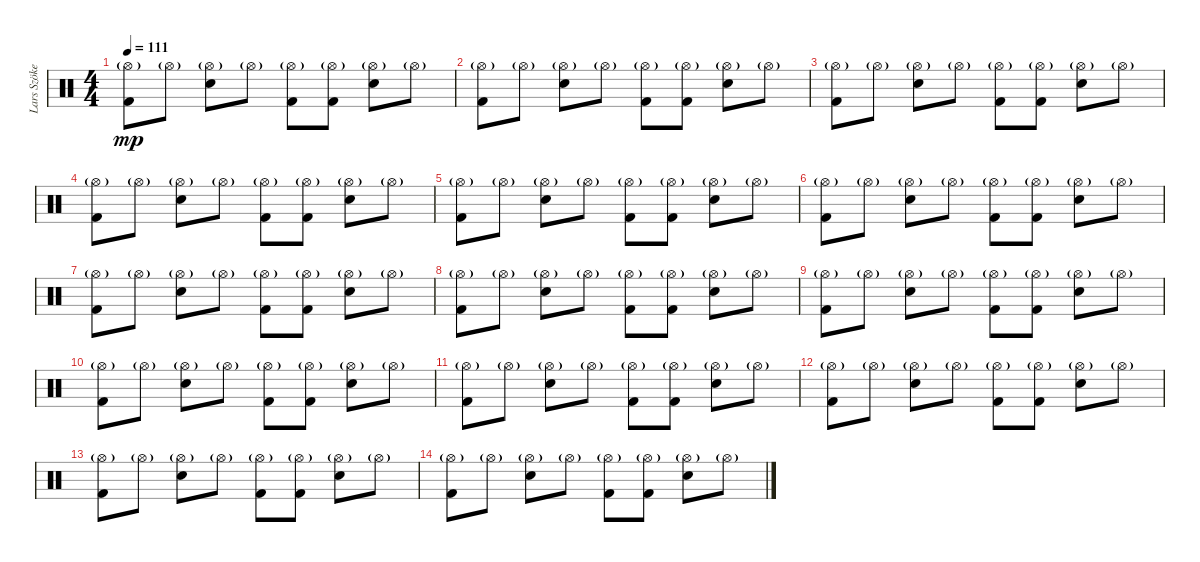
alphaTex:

\track ("Lars Szöke/Horgh" "Lars Szöke") {instrument percussion}
\staff {score}
\articulation defaults
\ts (4 4)
\tempo 111
\clef neutral
\ks c
("Hi-Hat (open)"{g} "Kick (hit) 2").8{dy mp} "Hi-Hat (open)"{g}.8 ("Hi-Hat (open)"{g} "Snare (hit) 2").8 "Hi-Hat (open)"{g}.8 ("Hi-Hat (open)"{g} "Kick (hit) 2").8 ("Hi-Hat (open)"{g} "Kick (hit) 2").8 ("Hi-Hat (open)"{g} "Snare (hit) 2").8 "Hi-Hat (open)"{g}.8 |
("Hi-Hat (open)"{g} "Kick (hit) 2").8 "Hi-Hat (open)"{g}.8 ("Hi-Hat (open)"{g} "Snare (hit) 2").8 "Hi-Hat (open)"{g}.8 ("Hi-Hat (open)"{g} "Kick (hit) 2").8 ("Hi-Hat (open)"{g} "Kick (hit) 2").8 ("Hi-Hat (open)"{g} "Snare (hit) 2").8 "Hi-Hat (open)"{g}.8 |
("Hi-Hat (open)"{g} "Kick (hit) 2").8 "Hi-Hat (open)"{g}.8 ("Hi-Hat (open)"{g} "Snare (hit) 2").8 "Hi-Hat (open)"{g}.8 ("Hi-Hat (open)"{g} "Kick (hit) 2").8 ("Hi-Hat (open)"{g} "Kick (hit) 2").8 ("Hi-Hat (open)"{g} "Snare (hit) 2").8 "Hi-Hat (open)"{g}.8 |
("Hi-Hat (open)"{g} "Kick (hit) 2").8 "Hi-Hat (open)"{g}.8 ("Hi-Hat (open)"{g} "Snare (hit) 2").8 "Hi-Hat (open)"{g}.8 ("Hi-Hat (open)"{g} "Kick (hit) 2").8 ("Hi-Hat (open)"{g} "Kick (hit) 2").8 ("Hi-Hat (open)"{g} "Snare (hit) 2").8 "Hi-Hat (open)"{g}.8 |
("Hi-Hat (open)"{g} "Kick (hit) 2").8 "Hi-Hat (open)"{g}.8 ("Hi-Hat (open)"{g} "Snare (hit) 2").8 "Hi-Hat (open)"{g}.8 ("Hi-Hat (open)"{g} "Kick (hit) 2").8 ("Hi-Hat (open)"{g} "Kick (hit) 2").8 ("Hi-Hat (open)"{g} "Snare (hit) 2").8 "Hi-Hat (open)"{g}.8 |
("Hi-Hat (open)"{g} "Kick (hit) 2").8 "Hi-Hat (open)"{g}.8 ("Hi-Hat (open)"{g} "Snare (hit) 2").8 "Hi-Hat (open)"{g}.8 ("Hi-Hat (open)"{g} "Kick (hit) 2").8 ("Hi-Hat (open)"{g} "Kick (hit) 2").8 ("Hi-Hat (open)"{g} "Snare (hit) 2").8 "Hi-Hat (open)"{g}.8 |
("Hi-Hat (open)"{g} "Kick (hit) 2").8 "Hi-Hat (open)"{g}.8 ("Hi-Hat (open)"{g} "Snare (hit) 2").8 "Hi-Hat (open)"{g}.8 ("Hi-Hat (open)"{g} "Kick (hit) 2").8 ("Hi-Hat (open)"{g} "Kick (hit) 2").8 ("Hi-Hat (open)"{g} "Snare (hit) 2").8 "Hi-Hat (open)"{g}.8 |
("Hi-Hat (open)"{g} "Kick (hit) 2").8 "Hi-Hat (open)"{g}.8 ("Hi-Hat (open)"{g} "Snare (hit) 2").8 "Hi-Hat (open)"{g}.8 ("Hi-Hat (open)"{g} "Kick (hit) 2").8 ("Hi-Hat (open)"{g} "Kick (hit) 2").8 ("Hi-Hat (open)"{g} "Snare (hit) 2").8 "Hi-Hat (open)"{g}.8 |
("Hi-Hat (open)"{g} "Kick (hit) 2").8 "Hi-Hat (open)"{g}.8 ("Hi-Hat (open)"{g} "Snare (hit) 2").8 "Hi-Hat (open)"{g}.8 ("Hi-Hat (open)"{g} "Kick (hit) 2").8 ("Hi-Hat (open)"{g} "Kick (hit) 2").8 ("Hi-Hat (open)"{g} "Snare (hit) 2").8 "Hi-Hat (open)"{g}.8 |
("Hi-Hat (open)"{g} "Kick (hit) 2").8 "Hi-Hat (open)"{g}.8 ("Hi-Hat (open)"{g} "Snare (hit) 2").8 "Hi-Hat (open)"{g}.8 ("Hi-Hat (open)"{g} "Kick (hit) 2").8 ("Hi-Hat (open)"{g} "Kick (hit) 2").8 ("Hi-Hat (open)"{g} "Snare (hit) 2").8 "Hi-Hat (open)"{g}.8 |
("Hi-Hat (open)"{g} "Kick (hit) 2").8 "Hi-Hat (open)"{g}.8 ("Hi-Hat (open)"{g} "Snare (hit) 2").8 "Hi-Hat (open)"{g}.8 ("Hi-Hat (open)"{g} "Kick (hit) 2").8 ("Hi-Hat (open)"{g} "Kick (hit) 2").8 ("Hi-Hat (open)"{g} "Snare (hit) 2").8 "Hi-Hat (open)"{g}.8 |
("Hi-Hat (open)"{g} "Kick (hit) 2").8 "Hi-Hat (open)"{g}.8 ("Hi-Hat (open)"{g} "Snare (hit) 2").8 "Hi-Hat (open)"{g}.8 ("Hi-Hat (open)"{g} "Kick (hit) 2").8 ("Hi-Hat (open)"{g} "Kick (hit) 2").8 ("Hi-Hat (open)"{g} "Snare (hit) 2").8 "Hi-Hat (open)"{g}.8 |
("Hi-Hat (open)"{g} "Kick (hit) 2").8 "Hi-Hat (open)"{g}.8 ("Hi-Hat (open)"{g} "Snare (hit) 2").8 "Hi-Hat (open)"{g}.8 ("Hi-Hat (open)"{g} "Kick (hit) 2").8 ("Hi-Hat (open)"{g} "Kick (hit) 2").8 ("Hi-Hat (open)"{g} "Snare (hit) 2").8 "Hi-Hat (open)"{g}.8 |
("Hi-Hat (open)"{g} "Kick (hit) 2").8 "Hi-Hat (open)"{g}.8 ("Hi-Hat (open)"{g} "Snare (hit) 2").8 "Hi-Hat (open)"{g}.8 ("Hi-Hat (open)"{g} "Kick (hit) 2").8 ("Hi-Hat (open)"{g} "Kick (hit) 2").8 ("Hi-Hat (open)"{g} "Snare (hit) 2").8 "Hi-Hat (open)"{g}.8
